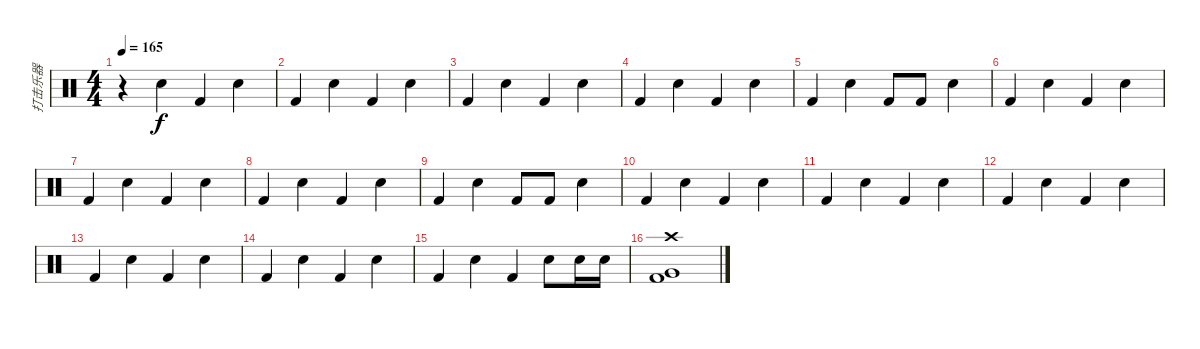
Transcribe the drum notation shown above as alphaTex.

\track ("打击乐器" "打击乐器") {instrument percussion}
\staff {score}
\articulation defaults
\ts (4 4)
\tempo 165
\clef neutral
\ks c
r.4{dy f} "Snare (hit) 2".4 "Kick (hit) 2".4 "Snare (hit) 2".4 |
"Kick (hit) 2".4 "Snare (hit) 2".4 "Kick (hit) 2".4 "Snare (hit) 2".4 |
"Kick (hit) 2".4 "Snare (hit) 2".4 "Kick (hit) 2".4 "Snare (hit) 2".4 |
"Kick (hit) 2".4 "Snare (hit) 2".4 "Kick (hit) 2".4 "Snare (hit) 2".4 |
"Kick (hit) 2".4 "Snare (hit) 2".4 "Kick (hit) 2".8 "Kick (hit) 2".8 "Snare (hit) 2".4 |
"Kick (hit) 2".4 "Snare (hit) 2".4 "Kick (hit) 2".4 "Snare (hit) 2".4 |
"Kick (hit) 2".4 "Snare (hit) 2".4 "Kick (hit) 2".4 "Snare (hit) 2".4 |
"Kick (hit) 2".4 "Snare (hit) 2".4 "Kick (hit) 2".4 "Snare (hit) 2".4 |
"Kick (hit) 2".4 "Snare (hit) 2".4 "Kick (hit) 2".8 "Kick (hit) 2".8 "Snare (hit) 2".4 |
"Kick (hit) 2".4 "Snare (hit) 2".4 "Kick (hit) 2".4 "Snare (hit) 2".4 |
"Kick (hit) 2".4 "Snare (hit) 2".4 "Kick (hit) 2".4 "Snare (hit) 2".4 |
"Kick (hit) 2".4 "Snare (hit) 2".4 "Kick (hit) 2".4 "Snare (hit) 2".4 |
"Kick (hit) 2".4 "Snare (hit) 2".4 "Kick (hit) 2".4 "Snare (hit) 2".4 |
"Kick (hit) 2".4 "Snare (hit) 2".4 "Kick (hit) 2".4 "Snare (hit) 2".4 |
"Kick (hit) 2".4 "Snare (hit) 2".4 "Kick (hit) 2".4 "Snare (hit) 2".8 "Snare (hit) 2".16 "Snare (hit) 2".16 |
("Kick (hit) 2" "Very Low Tom (hit)" "Crash high (hit)").1
